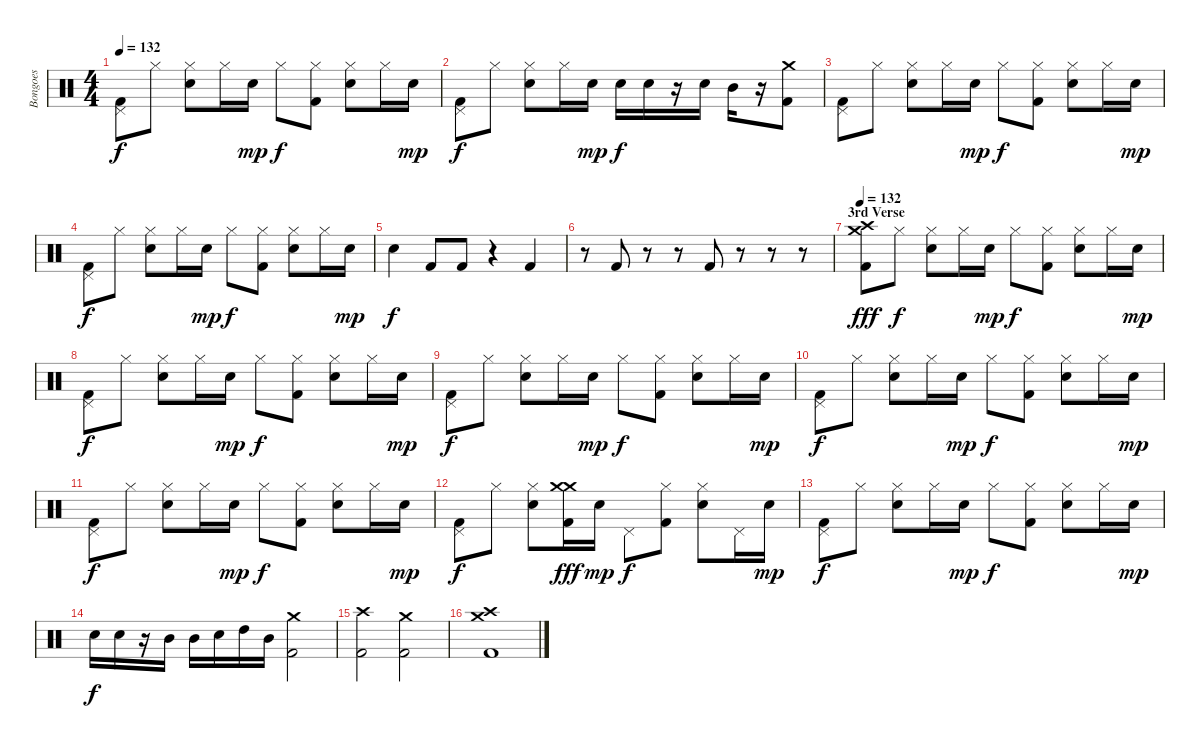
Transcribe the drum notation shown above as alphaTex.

\track ("Bongoes" "Bongoes") {instrument percussion}
\staff {score}
\articulation defaults
\ts (4 4)
\tempo 132
\clef neutral
\ks c
("Kick (hit) 2" "Pedal Hi-Hat (hit)").8{dy f} "Hi-Hat (closed)".8 ("Snare (hit) 2" "Hi-Hat (closed)").8 "Hi-Hat (closed)".16 "Snare (hit) 2".16{dy mp} "Hi-Hat (closed)".8{dy f} ("Kick (hit) 2" "Hi-Hat (closed)").8 ("Snare (hit) 2" "Hi-Hat (closed)").8 "Hi-Hat (closed)".16 "Snare (hit) 2".16{dy mp} |
("Kick (hit) 2" "Pedal Hi-Hat (hit)").8{dy f} "Hi-Hat (closed)".8 ("Snare (hit) 2" "Hi-Hat (closed)").8 "Hi-Hat (closed)".16 "Snare (hit) 2".16{dy mp} "Snare (hit) 2".16{dy f} "Snare (hit) 2".16 r.16 "Snare (hit) 2".16 "Mid Tom (hit)".16 r.16 ("Kick (hit) 2" "Crash medium (hit)").8 |
("Kick (hit) 2" "Pedal Hi-Hat (hit)").8 "Hi-Hat (closed)".8 ("Snare (hit) 2" "Hi-Hat (closed)").8 "Hi-Hat (closed)".16 "Snare (hit) 2".16{dy mp} "Hi-Hat (closed)".8{dy f} ("Kick (hit) 2" "Hi-Hat (closed)").8 ("Snare (hit) 2" "Hi-Hat (closed)").8 "Hi-Hat (closed)".16 "Snare (hit) 2".16{dy mp} |
("Kick (hit) 2" "Pedal Hi-Hat (hit)").8{dy f} "Hi-Hat (closed)".8 ("Snare (hit) 2" "Hi-Hat (closed)").8 "Hi-Hat (closed)".16 "Snare (hit) 2".16{dy mp} "Hi-Hat (closed)".8{dy f} ("Kick (hit) 2" "Hi-Hat (closed)").8 ("Snare (hit) 2" "Hi-Hat (closed)").8 "Hi-Hat (closed)".16 "Snare (hit) 2".16{dy mp} |
"Snare (hit) 2".4{dy f} "Kick (hit) 2".8 "Kick (hit) 2".8 r.4 "Kick (hit) 2".4 |
r.8 "Kick (hit) 2".8 r.8 r.8 "Kick (hit) 2".8 r.8 r.8 r.8 |
\section ("" "3rd Verse")
\tempo 132
("Kick (hit) 2" "Crash high (hit)" "Crash medium (hit)").8{dy fff} "Hi-Hat (closed)".8{dy f} ("Snare (hit) 2" "Hi-Hat (closed)").8 "Hi-Hat (closed)".16 "Snare (hit) 2".16{dy mp} "Hi-Hat (closed)".8{dy f} ("Kick (hit) 2" "Hi-Hat (closed)").8 ("Snare (hit) 2" "Hi-Hat (closed)").8 "Hi-Hat (closed)".16 "Snare (hit) 2".16{dy mp} |
("Kick (hit) 2" "Pedal Hi-Hat (hit)").8{dy f} "Hi-Hat (closed)".8 ("Snare (hit) 2" "Hi-Hat (closed)").8 "Hi-Hat (closed)".16 "Snare (hit) 2".16{dy mp} "Hi-Hat (closed)".8{dy f} ("Kick (hit) 2" "Hi-Hat (closed)").8 ("Snare (hit) 2" "Hi-Hat (closed)").8 "Hi-Hat (closed)".16 "Snare (hit) 2".16{dy mp} |
("Kick (hit) 2" "Pedal Hi-Hat (hit)").8{dy f} "Hi-Hat (closed)".8 ("Snare (hit) 2" "Hi-Hat (closed)").8 "Hi-Hat (closed)".16 "Snare (hit) 2".16{dy mp} "Hi-Hat (closed)".8{dy f} ("Kick (hit) 2" "Hi-Hat (closed)").8 ("Snare (hit) 2" "Hi-Hat (closed)").8 "Hi-Hat (closed)".16 "Snare (hit) 2".16{dy mp} |
("Kick (hit) 2" "Pedal Hi-Hat (hit)").8{dy f} "Hi-Hat (closed)".8 ("Snare (hit) 2" "Hi-Hat (closed)").8 "Hi-Hat (closed)".16 "Snare (hit) 2".16{dy mp} "Hi-Hat (closed)".8{dy f} ("Kick (hit) 2" "Hi-Hat (closed)").8 ("Snare (hit) 2" "Hi-Hat (closed)").8 "Hi-Hat (closed)".16 "Snare (hit) 2".16{dy mp} |
("Kick (hit) 2" "Pedal Hi-Hat (hit)").8{dy f} "Hi-Hat (closed)".8 ("Snare (hit) 2" "Hi-Hat (closed)").8 "Hi-Hat (closed)".16 "Snare (hit) 2".16{dy mp} "Hi-Hat (closed)".8{dy f} ("Kick (hit) 2" "Hi-Hat (closed)").8 ("Snare (hit) 2" "Hi-Hat (closed)").8 "Hi-Hat (closed)".16 "Snare (hit) 2".16{dy mp} |
("Kick (hit) 2" "Pedal Hi-Hat (hit)").8{dy f} "Hi-Hat (closed)".8 ("Snare (hit) 2" "Hi-Hat (closed)").8 ("Kick (hit) 2" "Crash medium (hit)" "Crash medium (hit)").16{dy fff} "Snare (hit) 2".16{dy mp} "Pedal Hi-Hat (hit)".8{dy f} ("Kick (hit) 2" "Hi-Hat (closed)").8 ("Snare (hit) 2" "Hi-Hat (closed)").8 "Pedal Hi-Hat (hit)".16 "Snare (hit) 2".16{dy mp} |
("Kick (hit) 2" "Pedal Hi-Hat (hit)").8{dy f} "Hi-Hat (closed)".8 ("Snare (hit) 2" "Hi-Hat (closed)").8 "Hi-Hat (closed)".16 "Snare (hit) 2".16{dy mp} "Hi-Hat (closed)".8{dy f} ("Kick (hit) 2" "Hi-Hat (closed)").8 ("Snare (hit) 2" "Hi-Hat (closed)").8 "Hi-Hat (closed)".16 "Snare (hit) 2".16{dy mp} |
"Snare (hit) 2".16{dy f} "Snare (hit) 2".16 r.16 "Mid Tom (hit)".16 "Mid Tom (hit)".16 "Snare (hit) 2".16 "High Tom (hit)".16 "Mid Tom (hit)".16 ("Kick (hit) 2" "Crash medium (hit)").2 |
("Kick (hit) 2" "Crash high (hit)").2 ("Kick (hit) 2" "Crash medium (hit)").2 |
("Kick (hit) 2" "Crash medium (hit)" "Crash high (hit)").1
